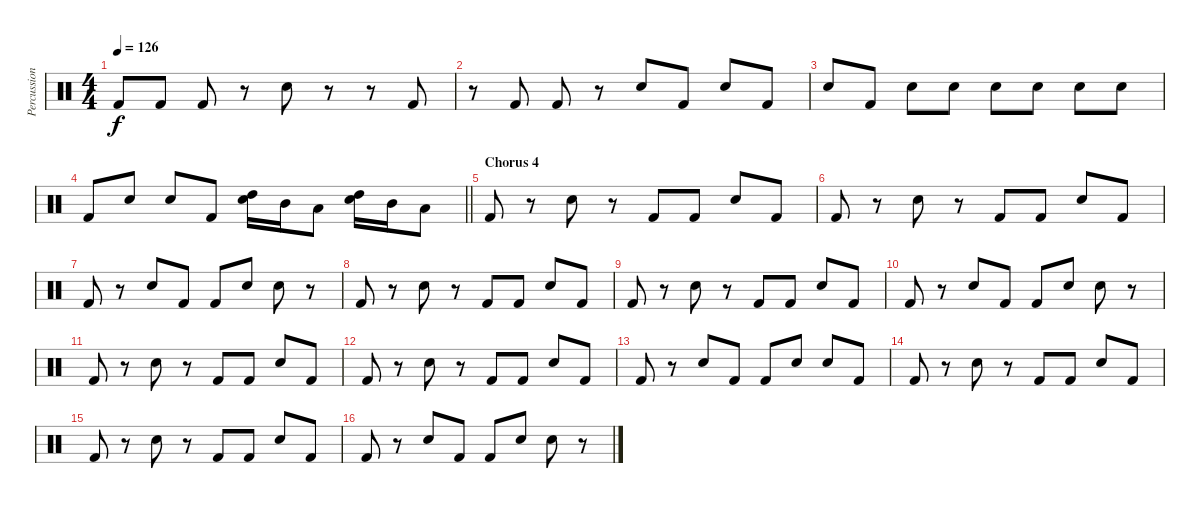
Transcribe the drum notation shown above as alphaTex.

\track ("Percussion" "Percussion") {instrument percussion}
\staff {score}
\articulation defaults
\ts (4 4)
\tempo 126
\clef neutral
\ks c "Kick (hit) 2".8{dy f} "Kick (hit) 2".8 "Kick (hit) 2".8
r.8 "Snare (hit) 2".8 r.8 r.8 "Kick (hit) 2".8 |
r.8 "Kick (hit) 2".8 "Kick (hit) 2".8 r.8 "Snare (hit) 2".8 "Kick (hit) 2".8 "Snare (hit) 2".8 "Kick (hit) 2".8 |
"Snare (hit) 2".8 "Kick (hit) 2".8 "Snare (hit) 2".8 "Snare (hit) 2".8 "Snare (hit) 2".8 "Snare (hit) 2".8 "Snare (hit) 2".8 "Snare (hit) 2".8 |
\barLineRight lightlight "Kick (hit) 2".8 "Snare (hit) 2".8 "Snare (hit) 2".8 "Kick (hit) 2".8
("High Tom (hit)" "Snare (hit) 2").16 "Mid Tom (hit)".16 "Low Tom (hit)".8 ("High Tom (hit)" "Snare (hit) 2").16 "Mid Tom (hit)".16 "Low Tom (hit)".8 |
\section ("" "Chorus 4")
"Kick (hit) 2".8 r.8 "Snare (hit) 2".8 r.8 "Kick (hit) 2".8 "Kick (hit) 2".8 "Snare (hit) 2".8 "Kick (hit) 2".8 |
"Kick (hit) 2".8 r.8 "Snare (hit) 2".8 r.8 "Kick (hit) 2".8 "Kick (hit) 2".8 "Snare (hit) 2".8 "Kick (hit) 2".8 |
"Kick (hit) 2".8 r.8 "Snare (hit) 2".8 "Kick (hit) 2".8 "Kick (hit) 2".8 "Snare (hit) 2".8 "Snare (hit) 2".8 r.8 |
"Kick (hit) 2".8 r.8 "Snare (hit) 2".8 r.8 "Kick (hit) 2".8 "Kick (hit) 2".8 "Snare (hit) 2".8 "Kick (hit) 2".8 |
"Kick (hit) 2".8 r.8 "Snare (hit) 2".8 r.8 "Kick (hit) 2".8 "Kick (hit) 2".8 "Snare (hit) 2".8 "Kick (hit) 2".8 |
"Kick (hit) 2".8 r.8 "Snare (hit) 2".8 "Kick (hit) 2".8 "Kick (hit) 2".8 "Snare (hit) 2".8 "Snare (hit) 2".8 r.8 |
"Kick (hit) 2".8 r.8 "Snare (hit) 2".8 r.8 "Kick (hit) 2".8 "Kick (hit) 2".8 "Snare (hit) 2".8 "Kick (hit) 2".8 |
"Kick (hit) 2".8 r.8 "Snare (hit) 2".8 r.8 "Kick (hit) 2".8 "Kick (hit) 2".8 "Snare (hit) 2".8 "Kick (hit) 2".8 |
"Kick (hit) 2".8 r.8 "Snare (hit) 2".8 "Kick (hit) 2".8 "Kick (hit) 2".8 "Snare (hit) 2".8 "Snare (hit) 2".8 "Kick (hit) 2".8 |
"Kick (hit) 2".8 r.8 "Snare (hit) 2".8 r.8 "Kick (hit) 2".8 "Kick (hit) 2".8 "Snare (hit) 2".8 "Kick (hit) 2".8 |
"Kick (hit) 2".8 r.8 "Snare (hit) 2".8 r.8 "Kick (hit) 2".8 "Kick (hit) 2".8 "Snare (hit) 2".8 "Kick (hit) 2".8 |
"Kick (hit) 2".8 r.8 "Snare (hit) 2".8 "Kick (hit) 2".8 "Kick (hit) 2".8 "Snare (hit) 2".8 "Snare (hit) 2".8 r.8
